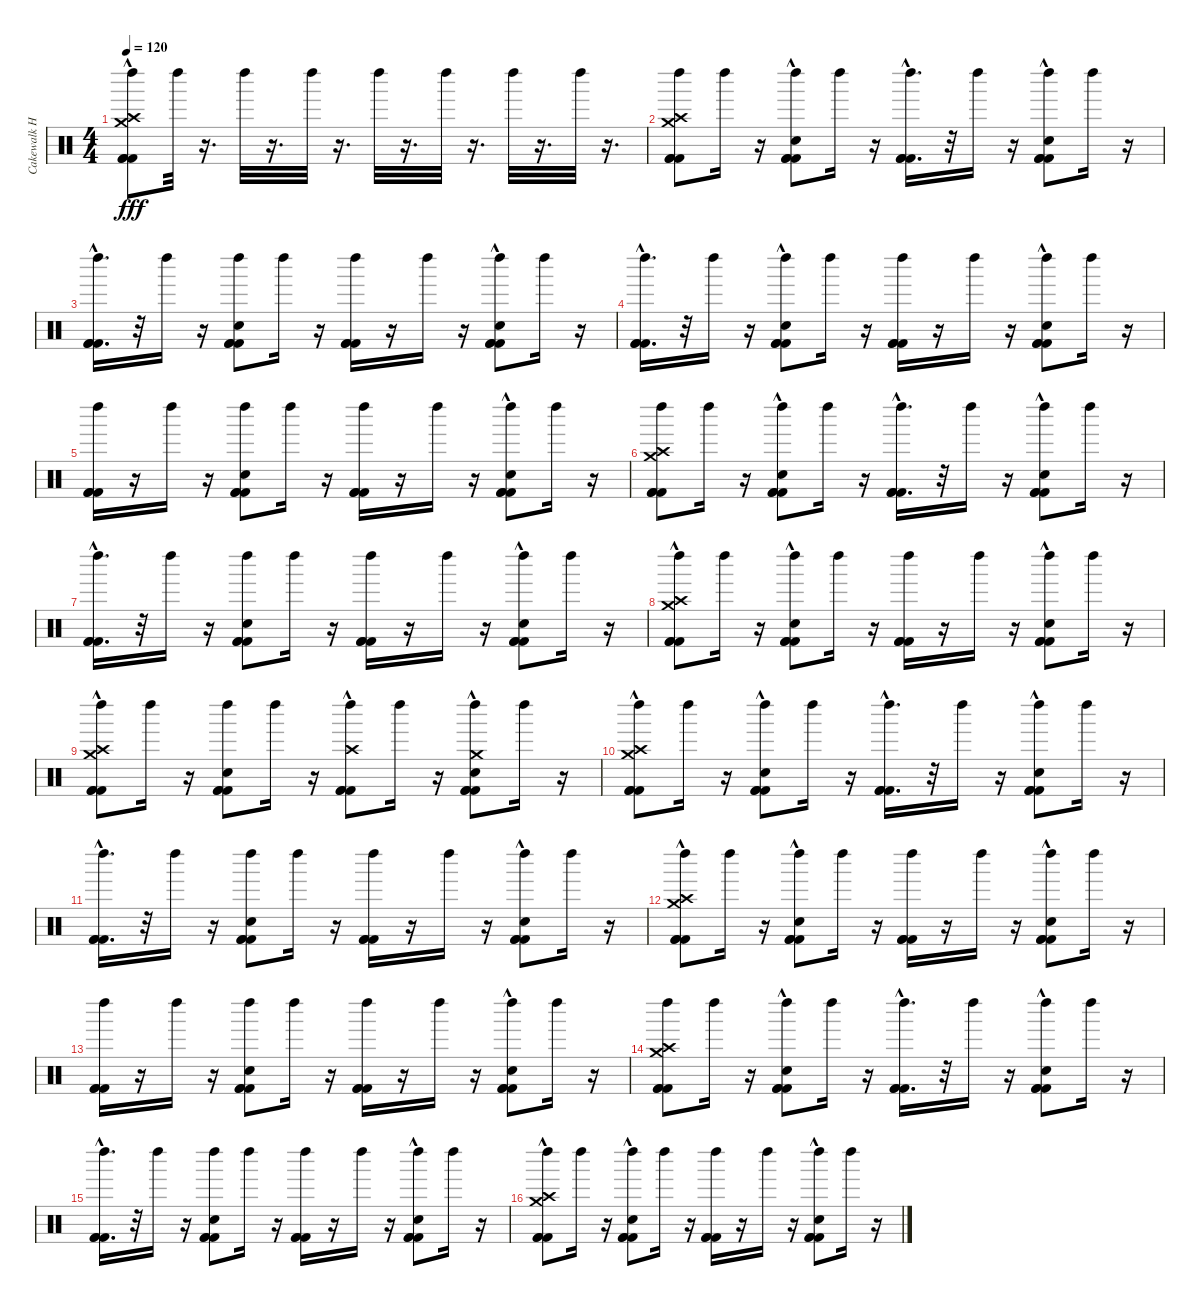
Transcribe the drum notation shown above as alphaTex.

\track ("Cakewalk Home Studio 5.0" "Cakewalk H") {instrument percussion}
\staff {score}
\articulation defaults
\ts (4 4)
\tempo 120
\clef neutral
\ks c
("Kick (hit) 2"{hac} "Kick (hit) 2"{hac} "Kick (hit) 2"{hac} "Left Maraca (hit)" "Crash high (hit)"{hac} "Crash medium (hit)"{hac}).8{dy fff} "Left Maraca (hit)".32 r.16{d} "Left Maraca (hit)".32 r.16{d} "Left Maraca (hit)".32 r.16{d} "Left Maraca (hit)".32 r.16{d} "Left Maraca (hit)".32 r.16{d} "Left Maraca (hit)".32 r.16{d} "Left Maraca (hit)".32 r.16{d} |
("Kick (hit) 2" "Left Maraca (hit)" "Kick (hit) 2" "Kick (hit) 2" "Crash medium (hit)" "Crash high (hit)").8 "Left Maraca (hit)".16 r.16 ("Hand Clap (hit)" "Kick (hit) 2"{hac} "Left Maraca (hit)" "Kick (hit) 2"{hac} "Kick (hit) 2"{hac}).8 "Left Maraca (hit)".16 r.16 ("Kick (hit) 2"{hac} "Kick (hit) 2"{hac} "Left Maraca (hit)" "Kick (hit) 2"{hac}).16{d} r.32 "Left Maraca (hit)".16 r.16 ("Hand Clap (hit)" "Left Maraca (hit)" "Kick (hit) 2"{hac} "Kick (hit) 2"{hac} "Kick (hit) 2"{hac}).8 "Left Maraca (hit)".16 r.16 |
("Kick (hit) 2"{hac} "Kick (hit) 2"{hac} "Kick (hit) 2"{hac} "Left Maraca (hit)").16{d} r.32 "Left Maraca (hit)".16 r.16 ("Kick (hit) 2" "Hand Clap (hit)" "Left Maraca (hit)" "Kick (hit) 2" "Kick (hit) 2").8 "Left Maraca (hit)".16 r.16 ("Kick (hit) 2" "Kick (hit) 2" "Left Maraca (hit)" "Kick (hit) 2").16 r.16 "Left Maraca (hit)".16 r.16 ("Left Maraca (hit)" "Kick (hit) 2"{hac} "Kick (hit) 2"{hac} "Kick (hit) 2"{hac} "Hand Clap (hit)").8 "Left Maraca (hit)".16 r.16 |
("Kick (hit) 2"{hac} "Kick (hit) 2"{hac} "Left Maraca (hit)" "Kick (hit) 2"{hac}).16{d} r.32 "Left Maraca (hit)".16 r.16 ("Kick (hit) 2"{hac} "Kick (hit) 2"{hac} "Hand Clap (hit)" "Left Maraca (hit)" "Kick (hit) 2"{hac}).8 "Left Maraca (hit)".16 r.16 ("Kick (hit) 2" "Kick (hit) 2" "Kick (hit) 2" "Left Maraca (hit)").16 r.16 "Left Maraca (hit)".16 r.16 ("Kick (hit) 2"{hac} "Kick (hit) 2"{hac} "Hand Clap (hit)" "Left Maraca (hit)" "Kick (hit) 2"{hac}).8 "Left Maraca (hit)".16 r.16 |
("Kick (hit) 2" "Kick (hit) 2" "Kick (hit) 2" "Left Maraca (hit)").16 r.16 "Left Maraca (hit)".16 r.16 ("Kick (hit) 2" "Left Maraca (hit)" "Kick (hit) 2" "Kick (hit) 2" "Hand Clap (hit)").8 "Left Maraca (hit)".16 r.16 ("Left Maraca (hit)" "Kick (hit) 2" "Kick (hit) 2" "Kick (hit) 2").16 r.16 "Left Maraca (hit)".16 r.16 ("Kick (hit) 2"{hac} "Left Maraca (hit)" "Kick (hit) 2"{hac} "Hand Clap (hit)" "Kick (hit) 2"{hac}).8 "Left Maraca (hit)".16 r.16 |
("Kick (hit) 2" "Left Maraca (hit)" "Kick (hit) 2" "Kick (hit) 2" "Crash high (hit)" "Crash medium (hit)").8 "Left Maraca (hit)".16 r.16 ("Hand Clap (hit)" "Kick (hit) 2"{hac} "Left Maraca (hit)" "Kick (hit) 2"{hac} "Kick (hit) 2"{hac}).8 "Left Maraca (hit)".16 r.16 ("Kick (hit) 2"{hac} "Kick (hit) 2"{hac} "Left Maraca (hit)" "Kick (hit) 2"{hac}).16{d} r.32 "Left Maraca (hit)".16 r.16 ("Hand Clap (hit)" "Left Maraca (hit)" "Kick (hit) 2"{hac} "Kick (hit) 2"{hac} "Kick (hit) 2"{hac}).8 "Left Maraca (hit)".16 r.16 |
("Kick (hit) 2"{hac} "Kick (hit) 2"{hac} "Kick (hit) 2"{hac} "Left Maraca (hit)").16{d} r.32 "Left Maraca (hit)".16 r.16 ("Kick (hit) 2" "Hand Clap (hit)" "Left Maraca (hit)" "Kick (hit) 2" "Kick (hit) 2").8 "Left Maraca (hit)".16 r.16 ("Kick (hit) 2" "Kick (hit) 2" "Left Maraca (hit)" "Kick (hit) 2").16 r.16 "Left Maraca (hit)".16 r.16 ("Left Maraca (hit)" "Kick (hit) 2"{hac} "Kick (hit) 2"{hac} "Kick (hit) 2"{hac} "Hand Clap (hit)").8 "Left Maraca (hit)".16 r.16 |
("Kick (hit) 2"{hac} "Kick (hit) 2"{hac} "Left Maraca (hit)" "Kick (hit) 2"{hac} "Crash high (hit)" "Crash medium (hit)").8 "Left Maraca (hit)".16 r.16 ("Kick (hit) 2"{hac} "Kick (hit) 2"{hac} "Hand Clap (hit)" "Left Maraca (hit)" "Kick (hit) 2"{hac}).8 "Left Maraca (hit)".16 r.16 ("Kick (hit) 2" "Kick (hit) 2" "Kick (hit) 2" "Left Maraca (hit)").16 r.16 "Left Maraca (hit)".16 r.16 ("Kick (hit) 2"{hac} "Kick (hit) 2"{hac} "Hand Clap (hit)" "Left Maraca (hit)" "Kick (hit) 2"{hac}).8 "Left Maraca (hit)".16 r.16 |
("Kick (hit) 2" "Kick (hit) 2" "Kick (hit) 2" "Left Maraca (hit)" "Crash high (hit)"{hac} "Crash medium (hit)"{hac}).8 "Left Maraca (hit)".16 r.16 ("Kick (hit) 2" "Left Maraca (hit)" "Kick (hit) 2" "Kick (hit) 2" "Hand Clap (hit)").8 "Left Maraca (hit)".16 r.16 ("Left Maraca (hit)" "Kick (hit) 2" "Kick (hit) 2" "Kick (hit) 2" "Crash high (hit)"{hac}).8 "Left Maraca (hit)".16 r.16 ("Kick (hit) 2"{hac} "Left Maraca (hit)" "Kick (hit) 2"{hac} "Hand Clap (hit)" "Kick (hit) 2"{hac} "Crash medium (hit)"{hac}).8 "Left Maraca (hit)".16 r.16 |
("Kick (hit) 2" "Left Maraca (hit)" "Kick (hit) 2" "Kick (hit) 2" "Crash high (hit)"{hac} "Crash medium (hit)"{hac}).8 "Left Maraca (hit)".16 r.16 ("Hand Clap (hit)" "Kick (hit) 2"{hac} "Left Maraca (hit)" "Kick (hit) 2"{hac} "Kick (hit) 2"{hac}).8 "Left Maraca (hit)".16 r.16 ("Kick (hit) 2"{hac} "Kick (hit) 2"{hac} "Left Maraca (hit)" "Kick (hit) 2"{hac}).16{d} r.32 "Left Maraca (hit)".16 r.16 ("Hand Clap (hit)" "Left Maraca (hit)" "Kick (hit) 2"{hac} "Kick (hit) 2"{hac} "Kick (hit) 2"{hac}).8 "Left Maraca (hit)".16 r.16 |
("Kick (hit) 2"{hac} "Kick (hit) 2"{hac} "Kick (hit) 2"{hac} "Left Maraca (hit)").16{d} r.32 "Left Maraca (hit)".16 r.16 ("Kick (hit) 2" "Hand Clap (hit)" "Left Maraca (hit)" "Kick (hit) 2" "Kick (hit) 2").8 "Left Maraca (hit)".16 r.16 ("Kick (hit) 2" "Kick (hit) 2" "Left Maraca (hit)" "Kick (hit) 2").16 r.16 "Left Maraca (hit)".16 r.16 ("Left Maraca (hit)" "Kick (hit) 2"{hac} "Kick (hit) 2"{hac} "Kick (hit) 2"{hac} "Hand Clap (hit)").8 "Left Maraca (hit)".16 r.16 |
("Kick (hit) 2"{hac} "Kick (hit) 2"{hac} "Left Maraca (hit)" "Kick (hit) 2"{hac} "Crash high (hit)"{hac} "Crash medium (hit)"{hac}).8 "Left Maraca (hit)".16 r.16 ("Kick (hit) 2"{hac} "Kick (hit) 2"{hac} "Hand Clap (hit)" "Left Maraca (hit)" "Kick (hit) 2"{hac}).8 "Left Maraca (hit)".16 r.16 ("Kick (hit) 2" "Kick (hit) 2" "Kick (hit) 2" "Left Maraca (hit)").16 r.16 "Left Maraca (hit)".16 r.16 ("Kick (hit) 2"{hac} "Kick (hit) 2"{hac} "Hand Clap (hit)" "Left Maraca (hit)" "Kick (hit) 2"{hac}).8 "Left Maraca (hit)".16 r.16 |
("Kick (hit) 2" "Kick (hit) 2" "Kick (hit) 2" "Left Maraca (hit)").16 r.16 "Left Maraca (hit)".16 r.16 ("Kick (hit) 2" "Left Maraca (hit)" "Kick (hit) 2" "Kick (hit) 2" "Hand Clap (hit)").8 "Left Maraca (hit)".16 r.16 ("Left Maraca (hit)" "Kick (hit) 2" "Kick (hit) 2" "Kick (hit) 2").16 r.16 "Left Maraca (hit)".16 r.16 ("Kick (hit) 2"{hac} "Left Maraca (hit)" "Kick (hit) 2"{hac} "Hand Clap (hit)" "Kick (hit) 2"{hac}).8 "Left Maraca (hit)".16 r.16 |
("Kick (hit) 2" "Left Maraca (hit)" "Kick (hit) 2" "Kick (hit) 2" "Crash high (hit)" "Crash medium (hit)").8 "Left Maraca (hit)".16 r.16 ("Hand Clap (hit)" "Kick (hit) 2"{hac} "Left Maraca (hit)" "Kick (hit) 2"{hac} "Kick (hit) 2"{hac}).8 "Left Maraca (hit)".16 r.16 ("Kick (hit) 2"{hac} "Kick (hit) 2"{hac} "Left Maraca (hit)" "Kick (hit) 2"{hac}).16{d} r.32 "Left Maraca (hit)".16 r.16 ("Hand Clap (hit)" "Left Maraca (hit)" "Kick (hit) 2"{hac} "Kick (hit) 2"{hac} "Kick (hit) 2"{hac}).8 "Left Maraca (hit)".16 r.16 |
("Kick (hit) 2"{hac} "Kick (hit) 2"{hac} "Kick (hit) 2"{hac} "Left Maraca (hit)").16{d} r.32 "Left Maraca (hit)".16 r.16 ("Kick (hit) 2" "Hand Clap (hit)" "Left Maraca (hit)" "Kick (hit) 2" "Kick (hit) 2").8 "Left Maraca (hit)".16 r.16 ("Kick (hit) 2" "Kick (hit) 2" "Left Maraca (hit)" "Kick (hit) 2").16 r.16 "Left Maraca (hit)".16 r.16 ("Left Maraca (hit)" "Kick (hit) 2"{hac} "Kick (hit) 2"{hac} "Kick (hit) 2"{hac} "Hand Clap (hit)").8 "Left Maraca (hit)".16 r.16 |
("Kick (hit) 2"{hac} "Kick (hit) 2"{hac} "Left Maraca (hit)" "Kick (hit) 2"{hac} "Crash high (hit)"{hac} "Crash medium (hit)"{hac}).8 "Left Maraca (hit)".16 r.16 ("Kick (hit) 2"{hac} "Kick (hit) 2"{hac} "Hand Clap (hit)" "Left Maraca (hit)" "Kick (hit) 2"{hac}).8 "Left Maraca (hit)".16 r.16 ("Kick (hit) 2" "Kick (hit) 2" "Kick (hit) 2" "Left Maraca (hit)").16 r.16 "Left Maraca (hit)".16 r.16 ("Kick (hit) 2"{hac} "Kick (hit) 2"{hac} "Hand Clap (hit)" "Left Maraca (hit)" "Kick (hit) 2"{hac}).8 "Left Maraca (hit)".16 r.16
